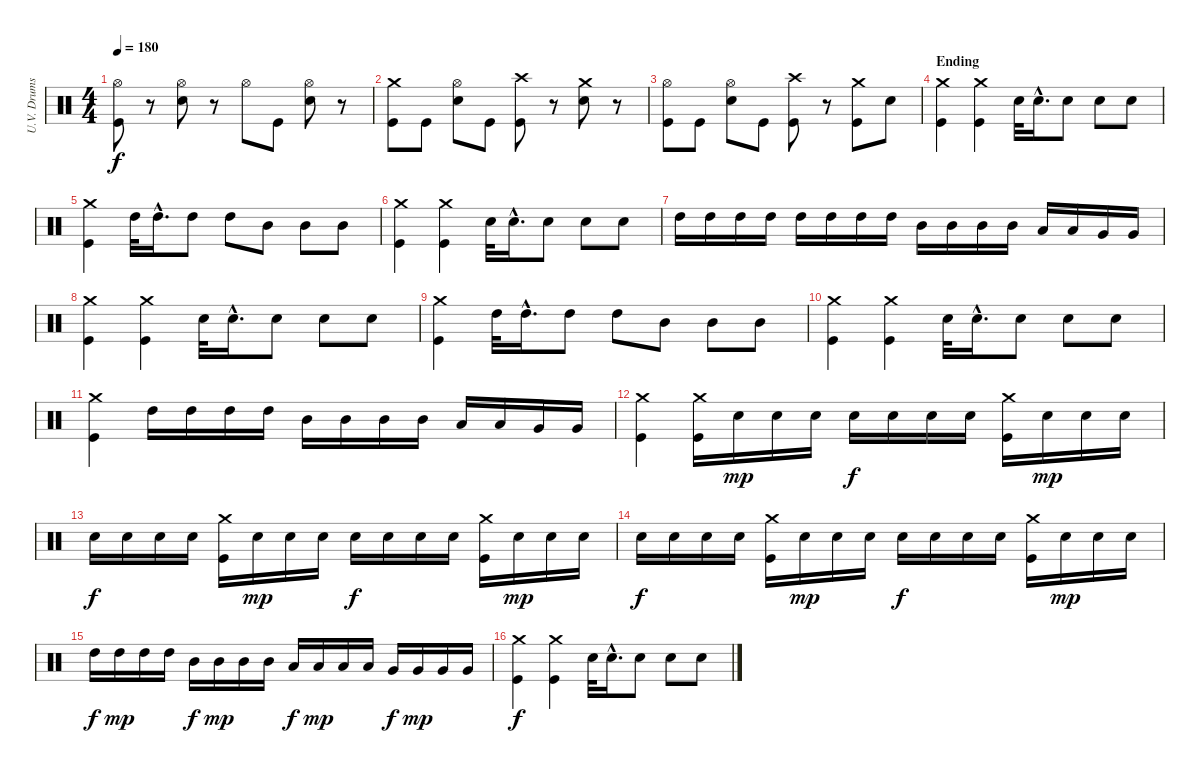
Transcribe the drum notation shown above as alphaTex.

\track ("U.V. Drums" "U.V. Drums") {instrument percussion}
\staff {score}
\articulation defaults
\ts (4 4)
\tempo 180
\clef neutral
\ks c
("Hi-Hat (open)" "Kick (hit)").8{dy f} r.8 ("Hi-Hat (open)" "Electric Snare (hit)").8 r.8 "Hi-Hat (open)".8 "Kick (hit)".8 ("Hi-Hat (open)" "Electric Snare (hit)").8 r.8 |
("Crash medium (hit)" "Kick (hit)").8 "Kick (hit)".8 ("Hi-Hat (open)" "Electric Snare (hit)").8 "Kick (hit)".8 ("Crash high (hit)" "Kick (hit)").8 r.8 ("Crash medium (hit)" "Electric Snare (hit)").8 r.8 |
("Hi-Hat (open)" "Kick (hit)").8 "Kick (hit)".8 ("Hi-Hat (open)" "Electric Snare (hit)").8 "Kick (hit)".8 ("Crash high (hit)" "Kick (hit)").8 r.8 ("Crash medium (hit)" "Kick (hit)").8 "Electric Snare (hit)".8 |
\section ("" "Ending")
("Crash medium (hit)" "Kick (hit)").4 ("Crash medium (hit)" "Kick (hit)").4 "Electric Snare (hit)".32 "Electric Snare (hit)"{hac}.16{d} "Electric Snare (hit)".8 "Electric Snare (hit)".8 "Electric Snare (hit)".8 |
("Crash medium (hit)" "Kick (hit)").4 "High Tom (hit)".32 "High Tom (hit)"{hac}.16{d} "High Tom (hit)".8 "High Tom (hit)".8 "Mid Tom (hit)".8 "Mid Tom (hit)".8 "Mid Tom (hit)".8 |
("Crash medium (hit)" "Kick (hit)").4 ("Crash medium (hit)" "Kick (hit)").4 "Electric Snare (hit)".32 "Electric Snare (hit)"{hac}.16{d} "Electric Snare (hit)".8 "Electric Snare (hit)".8 "Electric Snare (hit)".8 |
"High Tom (hit)".16 "High Tom (hit)".16 "High Tom (hit)".16 "High Tom (hit)".16 "High Tom (hit)".16 "High Tom (hit)".16 "High Tom (hit)".16 "High Tom (hit)".16 "Mid Tom (hit)".16 "Mid Tom (hit)".16 "Mid Tom (hit)".16 "Mid Tom (hit)".16 "Low Tom (hit)".16 "Low Tom (hit)".16 "Very Low Tom (hit)".16 "Very Low Tom (hit)".16 |
("Crash medium (hit)" "Kick (hit)").4 ("Crash medium (hit)" "Kick (hit)").4 "Electric Snare (hit)".32 "Electric Snare (hit)"{hac}.16{d} "Electric Snare (hit)".8 "Electric Snare (hit)".8 "Electric Snare (hit)".8 |
("Crash medium (hit)" "Kick (hit)").4 "High Tom (hit)".32 "High Tom (hit)"{hac}.16{d} "High Tom (hit)".8 "High Tom (hit)".8 "Mid Tom (hit)".8 "Mid Tom (hit)".8 "Mid Tom (hit)".8 |
("Crash medium (hit)" "Kick (hit)").4 ("Crash medium (hit)" "Kick (hit)").4 "Electric Snare (hit)".32 "Electric Snare (hit)"{hac}.16{d} "Electric Snare (hit)".8 "Electric Snare (hit)".8 "Electric Snare (hit)".8 |
("Crash medium (hit)" "Kick (hit)").4 "High Tom (hit)".16 "High Tom (hit)".16 "High Tom (hit)".16 "High Tom (hit)".16 "Mid Tom (hit)".16 "Mid Tom (hit)".16 "Mid Tom (hit)".16 "Mid Tom (hit)".16 "Low Tom (hit)".16 "Low Tom (hit)".16 "Very Low Tom (hit)".16 "Very Low Tom (hit)".16 |
("Crash medium (hit)" "Kick (hit)").4 ("Crash medium (hit)" "Kick (hit)").16 "Electric Snare (hit)".16{dy mp} "Electric Snare (hit)".16 "Electric Snare (hit)".16 "Electric Snare (hit)".16{dy f} "Electric Snare (hit)".16 "Electric Snare (hit)".16 "Electric Snare (hit)".16 ("Crash medium (hit)" "Kick (hit)").16 "Electric Snare (hit)".16{dy mp} "Electric Snare (hit)".16 "Electric Snare (hit)".16 |
"Electric Snare (hit)".16{dy f} "Electric Snare (hit)".16 "Electric Snare (hit)".16 "Electric Snare (hit)".16 ("Crash medium (hit)" "Kick (hit)").16 "Electric Snare (hit)".16{dy mp} "Electric Snare (hit)".16 "Electric Snare (hit)".16 "Electric Snare (hit)".16{dy f} "Electric Snare (hit)".16 "Electric Snare (hit)".16 "Electric Snare (hit)".16 ("Crash medium (hit)" "Kick (hit)").16 "Electric Snare (hit)".16{dy mp} "Electric Snare (hit)".16 "Electric Snare (hit)".16 |
"Electric Snare (hit)".16{dy f} "Electric Snare (hit)".16 "Electric Snare (hit)".16 "Electric Snare (hit)".16 ("Crash medium (hit)" "Kick (hit)").16 "Electric Snare (hit)".16{dy mp} "Electric Snare (hit)".16 "Electric Snare (hit)".16 "Electric Snare (hit)".16{dy f} "Electric Snare (hit)".16 "Electric Snare (hit)".16 "Electric Snare (hit)".16 ("Crash medium (hit)" "Kick (hit)").16 "Electric Snare (hit)".16{dy mp} "Electric Snare (hit)".16 "Electric Snare (hit)".16 |
"High Tom (hit)".16{dy f} "High Tom (hit)".16{dy mp} "High Tom (hit)".16 "High Tom (hit)".16 "Mid Tom (hit)".16{dy f} "Mid Tom (hit)".16{dy mp} "Mid Tom (hit)".16 "Mid Tom (hit)".16 "Low Tom (hit)".16{dy f} "Low Tom (hit)".16{dy mp} "Low Tom (hit)".16 "Low Tom (hit)".16 "Very Low Tom (hit)".16{dy f} "Very Low Tom (hit)".16{dy mp} "Very Low Tom (hit)".16 "Very Low Tom (hit)".16 |
("Crash medium (hit)" "Kick (hit)").4{dy f} ("Crash medium (hit)" "Kick (hit)").4 "Electric Snare (hit)".32 "Electric Snare (hit)"{hac}.16{d} "Electric Snare (hit)".8 "Electric Snare (hit)".8 "Electric Snare (hit)".8
